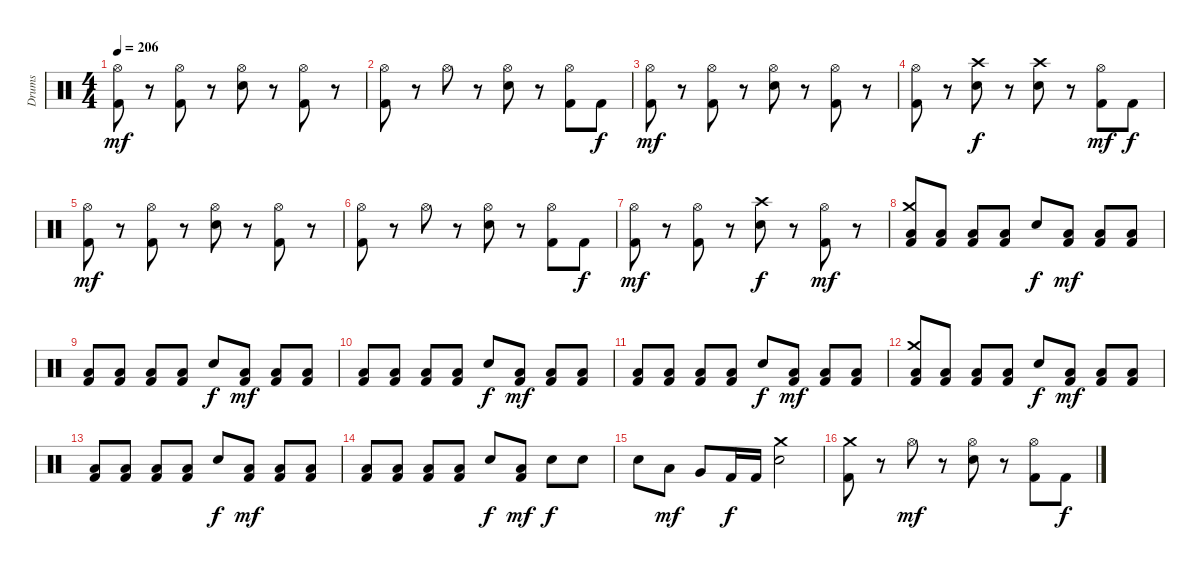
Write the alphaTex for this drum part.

\track ("Drums" "Drums") {instrument percussion}
\staff {score}
\articulation defaults
\ts (4 4)
\tempo 206
\clef neutral
\ks c
("Hi-Hat (open)" "Kick (hit) 2").8{dy mf} r.8 ("Hi-Hat (open)" "Kick (hit) 2").8 r.8 ("Hi-Hat (open)" "Snare (hit) 2").8 r.8 ("Hi-Hat (open)" "Kick (hit) 2").8 r.8 |
("Hi-Hat (open)" "Kick (hit) 2").8 r.8 "Hi-Hat (open)".8 r.8 ("Hi-Hat (open)" "Snare (hit) 2").8 r.8 ("Hi-Hat (open)" "Kick (hit) 2").8 "Kick (hit) 2".8{dy f} |
("Hi-Hat (open)" "Kick (hit) 2").8{dy mf} r.8 ("Hi-Hat (open)" "Kick (hit) 2").8 r.8 ("Hi-Hat (open)" "Snare (hit) 2").8 r.8 ("Hi-Hat (open)" "Kick (hit) 2").8 r.8 |
("Hi-Hat (open)" "Kick (hit) 2").8 r.8 ("Crash high (hit)" "Snare (hit) 2").8{dy f} r.8 ("Crash high (hit)" "Snare (hit) 2").8 r.8 ("Hi-Hat (open)" "Kick (hit) 2").8{dy mf} "Kick (hit) 2".8{dy f} |
("Hi-Hat (open)" "Kick (hit) 2").8{dy mf} r.8 ("Hi-Hat (open)" "Kick (hit) 2").8 r.8 ("Hi-Hat (open)" "Snare (hit) 2").8 r.8 ("Hi-Hat (open)" "Kick (hit) 2").8 r.8 |
("Hi-Hat (open)" "Kick (hit) 2").8 r.8 "Hi-Hat (open)".8 r.8 ("Hi-Hat (open)" "Snare (hit) 2").8 r.8 ("Hi-Hat (open)" "Kick (hit) 2").8 "Kick (hit) 2".8{dy f} |
("Hi-Hat (open)" "Kick (hit) 2").8{dy mf} r.8 ("Hi-Hat (open)" "Kick (hit) 2").8 r.8 ("Crash high (hit)" "Snare (hit) 2").8{dy f} r.8 ("Hi-Hat (open)" "Kick (hit) 2").8{dy mf} r.8 |
("Crash medium (hit)" "Low Floor Tom (hit)" "Kick (hit) 2").8 ("Low Floor Tom (hit)" "Kick (hit) 2").8 ("Low Floor Tom (hit)" "Kick (hit) 2").8 ("Low Floor Tom (hit)" "Kick (hit) 2").8 "Snare (hit) 2".8{dy f} ("Low Floor Tom (hit)" "Kick (hit) 2").8{dy mf} ("Low Floor Tom (hit)" "Kick (hit) 2").8 ("Low Floor Tom (hit)" "Kick (hit) 2").8 |
("Low Floor Tom (hit)" "Kick (hit) 2").8 ("Low Floor Tom (hit)" "Kick (hit) 2").8 ("Low Floor Tom (hit)" "Kick (hit) 2").8 ("Low Floor Tom (hit)" "Kick (hit) 2").8 "Snare (hit) 2".8{dy f} ("Low Floor Tom (hit)" "Kick (hit) 2").8{dy mf} ("Low Floor Tom (hit)" "Kick (hit) 2").8 ("Low Floor Tom (hit)" "Kick (hit) 2").8 |
("Low Floor Tom (hit)" "Kick (hit) 2").8 ("Low Floor Tom (hit)" "Kick (hit) 2").8 ("Low Floor Tom (hit)" "Kick (hit) 2").8 ("Low Floor Tom (hit)" "Kick (hit) 2").8 "Snare (hit) 2".8{dy f} ("Low Floor Tom (hit)" "Kick (hit) 2").8{dy mf} ("Low Floor Tom (hit)" "Kick (hit) 2").8 ("Low Floor Tom (hit)" "Kick (hit) 2").8 |
("Low Floor Tom (hit)" "Kick (hit) 2").8 ("Low Floor Tom (hit)" "Kick (hit) 2").8 ("Low Floor Tom (hit)" "Kick (hit) 2").8 ("Low Floor Tom (hit)" "Kick (hit) 2").8 "Snare (hit) 2".8{dy f} ("Low Floor Tom (hit)" "Kick (hit) 2").8{dy mf} ("Low Floor Tom (hit)" "Kick (hit) 2").8 ("Low Floor Tom (hit)" "Kick (hit) 2").8 |
("Crash medium (hit)" "Low Floor Tom (hit)" "Kick (hit) 2").8 ("Low Floor Tom (hit)" "Kick (hit) 2").8 ("Low Floor Tom (hit)" "Kick (hit) 2").8 ("Low Floor Tom (hit)" "Kick (hit) 2").8 "Snare (hit) 2".8{dy f} ("Low Floor Tom (hit)" "Kick (hit) 2").8{dy mf} ("Low Floor Tom (hit)" "Kick (hit) 2").8 ("Low Floor Tom (hit)" "Kick (hit) 2").8 |
("Low Floor Tom (hit)" "Kick (hit) 2").8 ("Low Floor Tom (hit)" "Kick (hit) 2").8 ("Low Floor Tom (hit)" "Kick (hit) 2").8 ("Low Floor Tom (hit)" "Kick (hit) 2").8 "Snare (hit) 2".8{dy f} ("Low Floor Tom (hit)" "Kick (hit) 2").8{dy mf} ("Low Floor Tom (hit)" "Kick (hit) 2").8 ("Low Floor Tom (hit)" "Kick (hit) 2").8 |
("Low Floor Tom (hit)" "Kick (hit) 2").8 ("Low Floor Tom (hit)" "Kick (hit) 2").8 ("Low Floor Tom (hit)" "Kick (hit) 2").8 ("Low Floor Tom (hit)" "Kick (hit) 2").8 "Snare (hit) 2".8{dy f} ("Low Floor Tom (hit)" "Kick (hit) 2").8{dy mf} "Snare (hit) 2".8{dy f} "Snare (hit) 2".8 |
"Snare (hit) 2".8 "Low Tom (hit)".8{dy mf} "Very Low Tom (hit)".8 "Kick (hit) 2".16{dy f} "Kick (hit) 2".16 ("Crash medium (hit)" "Snare (hit) 2").2 |
("Crash medium (hit)" "Kick (hit) 2").8 r.8 "Hi-Hat (open)".8{dy mf} r.8 ("Hi-Hat (open)" "Snare (hit) 2").8 r.8 ("Hi-Hat (open)" "Kick (hit) 2").8 "Kick (hit) 2".8{dy f}
